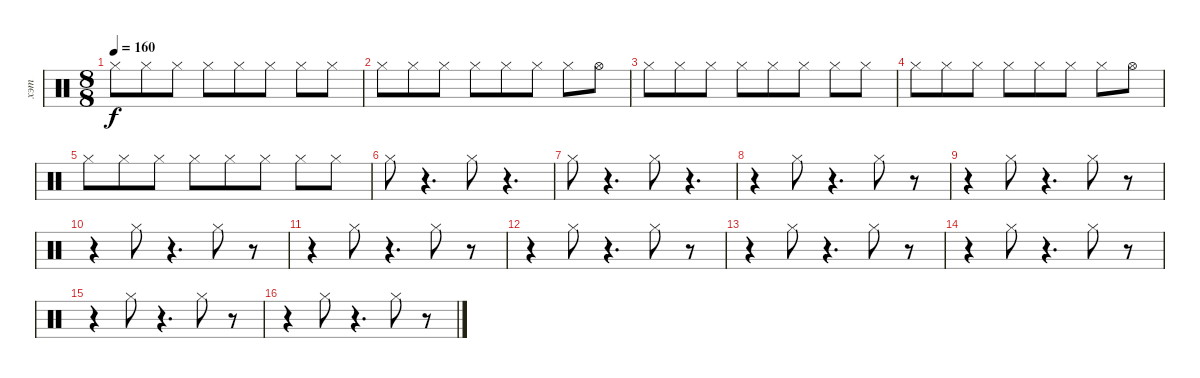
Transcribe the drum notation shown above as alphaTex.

\track ("хэт" "хэт") {instrument percussion}
\staff {score}
\articulation defaults
\ts (8 8)
\tempo 160
\clef neutral
\ks c "Hi-Hat (closed)".8{dy f} "Hi-Hat (closed)".8 "Hi-Hat (closed)".8 "Hi-Hat (closed)".8 "Hi-Hat (closed)".8 "Hi-Hat (closed)".8 "Hi-Hat (closed)".8 "Hi-Hat (closed)".8
|
"Hi-Hat (closed)".8 "Hi-Hat (closed)".8 "Hi-Hat (closed)".8 "Hi-Hat (closed)".8 "Hi-Hat (closed)".8 "Hi-Hat (closed)".8 "Hi-Hat (closed)".8 "Hi-Hat (open)".8 |
"Hi-Hat (closed)".8 "Hi-Hat (closed)".8 "Hi-Hat (closed)".8 "Hi-Hat (closed)".8 "Hi-Hat (closed)".8 "Hi-Hat (closed)".8 "Hi-Hat (closed)".8 "Hi-Hat (closed)".8 |
"Hi-Hat (closed)".8 "Hi-Hat (closed)".8 "Hi-Hat (closed)".8 "Hi-Hat (closed)".8 "Hi-Hat (closed)".8 "Hi-Hat (closed)".8 "Hi-Hat (closed)".8 "Hi-Hat (open)".8 |
"Hi-Hat (closed)".8 "Hi-Hat (closed)".8 "Hi-Hat (closed)".8 "Hi-Hat (closed)".8 "Hi-Hat (closed)".8 "Hi-Hat (closed)".8 "Hi-Hat (closed)".8 "Hi-Hat (closed)".8 |
"Hi-Hat (closed)".8 r.4{d} "Hi-Hat (closed)".8 r.4{d} |
"Hi-Hat (closed)".8 r.4{d} "Hi-Hat (closed)".8 r.4{d} |
r.4 "Hi-Hat (closed)".8 r.4{d} "Hi-Hat (closed)".8 r.8 |
r.4 "Hi-Hat (closed)".8 r.4{d} "Hi-Hat (closed)".8 r.8 |
r.4 "Hi-Hat (closed)".8 r.4{d} "Hi-Hat (closed)".8 r.8 |
r.4 "Hi-Hat (closed)".8 r.4{d} "Hi-Hat (closed)".8 r.8 |
r.4 "Hi-Hat (closed)".8 r.4{d} "Hi-Hat (closed)".8 r.8 |
r.4 "Hi-Hat (closed)".8 r.4{d} "Hi-Hat (closed)".8 r.8 |
r.4 "Hi-Hat (closed)".8 r.4{d} "Hi-Hat (closed)".8 r.8 |
r.4 "Hi-Hat (closed)".8 r.4{d} "Hi-Hat (closed)".8 r.8 |
r.4 "Hi-Hat (closed)".8 r.4{d} "Hi-Hat (closed)".8 r.8
